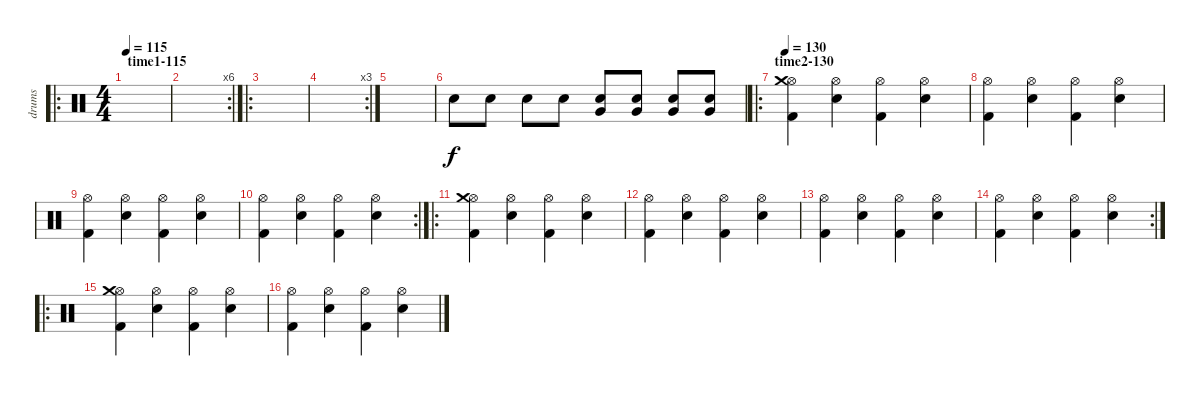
\track ("drums" "drums") {instrument percussion}
\staff {score}
\articulation defaults
\ro
\ts (4 4)
\section ("" "time1-115")
\tempo 115
\clef neutral
\ks c
|
\rc 6
|
\ro
|
\rc 3
|
|
"Electric Snare (hit)".8 "Electric Snare (hit)".8 "Electric Snare (hit)".8 "Electric Snare (hit)".8 ("Electric Snare (hit)" "Very Low Tom (hit)").8 ("Electric Snare (hit)" "Very Low Tom (hit)").8 ("Electric Snare (hit)" "Very Low Tom (hit)").8 ("Electric Snare (hit)" "Very Low Tom (hit)").8 |
\ro
\section ("" "time2-130")
\tempo 130
("Kick (hit) 2" "Hi-Hat (open)" "Crash medium (hit)").4 ("Electric Snare (hit)" "Hi-Hat (open)").4 ("Kick (hit) 2" "Hi-Hat (open)").4 ("Electric Snare (hit)" "Hi-Hat (open)").4 |
("Kick (hit) 2" "Hi-Hat (open)").4 ("Electric Snare (hit)" "Hi-Hat (open)").4 ("Kick (hit) 2" "Hi-Hat (open)").4 ("Electric Snare (hit)" "Hi-Hat (open)").4 |
("Kick (hit) 2" "Hi-Hat (open)").4 ("Electric Snare (hit)" "Hi-Hat (open)").4 ("Kick (hit) 2" "Hi-Hat (open)").4 ("Electric Snare (hit)" "Hi-Hat (open)").4 |
\rc 2
("Kick (hit) 2" "Hi-Hat (open)").4 ("Electric Snare (hit)" "Hi-Hat (open)").4 ("Kick (hit) 2" "Hi-Hat (open)").4 ("Electric Snare (hit)" "Hi-Hat (open)").4 |
\ro
("Kick (hit) 2" "Hi-Hat (open)" "Crash medium (hit)").4 ("Electric Snare (hit)" "Hi-Hat (open)").4 ("Kick (hit) 2" "Hi-Hat (open)").4 ("Electric Snare (hit)" "Hi-Hat (open)").4 |
("Kick (hit) 2" "Hi-Hat (open)").4 ("Electric Snare (hit)" "Hi-Hat (open)").4 ("Kick (hit) 2" "Hi-Hat (open)").4 ("Electric Snare (hit)" "Hi-Hat (open)").4 |
("Kick (hit) 2" "Hi-Hat (open)").4 ("Electric Snare (hit)" "Hi-Hat (open)").4 ("Kick (hit) 2" "Hi-Hat (open)").4 ("Electric Snare (hit)" "Hi-Hat (open)").4 |
\rc 2
("Kick (hit) 2" "Hi-Hat (open)").4 ("Electric Snare (hit)" "Hi-Hat (open)").4 ("Kick (hit) 2" "Hi-Hat (open)").4 ("Electric Snare (hit)" "Hi-Hat (open)").4 |
\ro
("Kick (hit) 2" "Hi-Hat (open)" "Crash medium (hit)").4 ("Electric Snare (hit)" "Hi-Hat (open)").4 ("Kick (hit) 2" "Hi-Hat (open)").4 ("Electric Snare (hit)" "Hi-Hat (open)").4 |
("Kick (hit) 2" "Hi-Hat (open)").4 ("Electric Snare (hit)" "Hi-Hat (open)").4 ("Kick (hit) 2" "Hi-Hat (open)").4 ("Electric Snare (hit)" "Hi-Hat (open)").4
